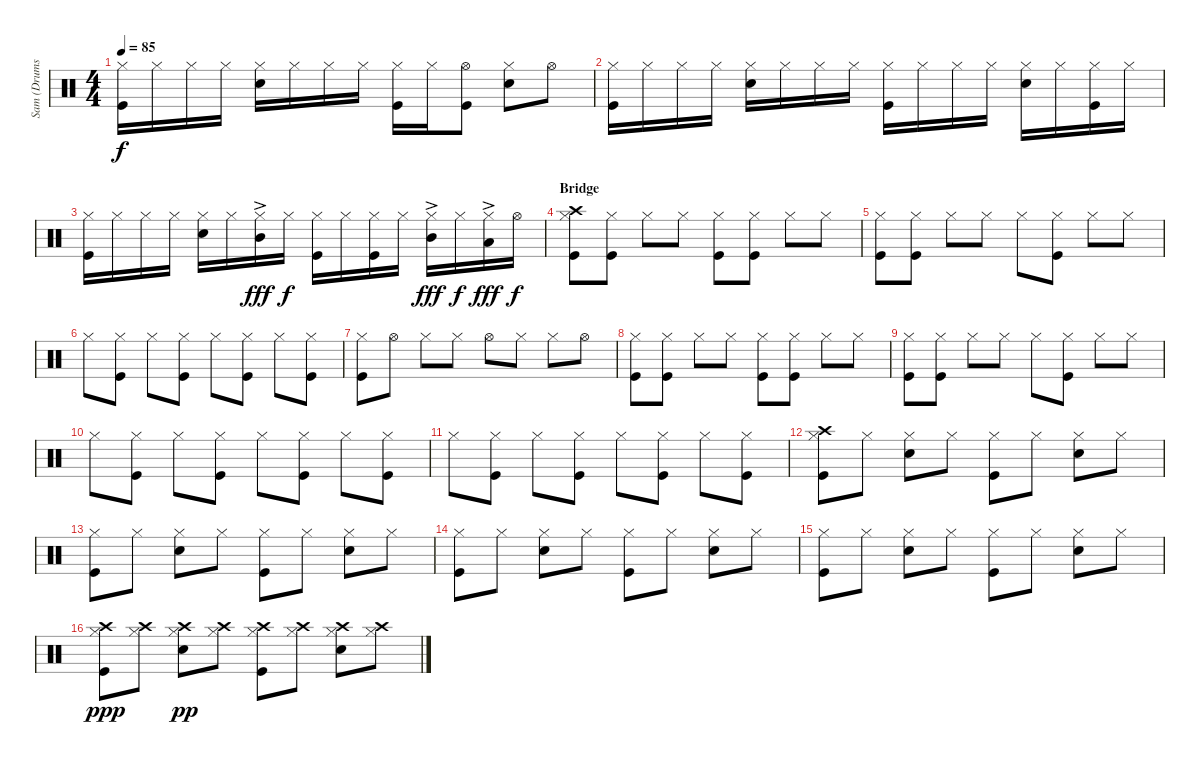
\track ("Sam (Drums)" "Sam (Drums") {instrument percussion}
\staff {score}
\articulation defaults
\ts (4 4)
\tempo 85
\clef neutral
\ks c
("Hi-Hat (closed)" "Kick (hit)").16{dy f} "Hi-Hat (closed)".16 "Hi-Hat (closed)".16 "Hi-Hat (closed)".16 ("Hi-Hat (closed)" "Snare (hit) 2").16 "Hi-Hat (closed)".16 "Hi-Hat (closed)".16 "Hi-Hat (closed)".16 ("Hi-Hat (closed)" "Kick (hit)").16 "Hi-Hat (closed)".16 ("Hi-Hat (open)" "Kick (hit)").8 ("Hi-Hat (closed)" "Snare (hit) 2").8 "Hi-Hat (open)".8 |
("Hi-Hat (closed)" "Kick (hit)").16 "Hi-Hat (closed)".16 "Hi-Hat (closed)".16 "Hi-Hat (closed)".16 ("Hi-Hat (closed)" "Snare (hit) 2").16 "Hi-Hat (closed)".16 "Hi-Hat (closed)".16 "Hi-Hat (closed)".16 ("Hi-Hat (closed)" "Kick (hit)").16 "Hi-Hat (closed)".16 "Hi-Hat (closed)".16 "Hi-Hat (closed)".16 ("Hi-Hat (closed)" "Snare (hit) 2").16 "Hi-Hat (closed)".16 ("Hi-Hat (closed)" "Kick (hit)").16 "Hi-Hat (closed)".16 |
("Hi-Hat (closed)" "Kick (hit)").16 "Hi-Hat (closed)".16 "Hi-Hat (closed)".16 "Hi-Hat (closed)".16 ("Hi-Hat (closed)" "Snare (hit) 2").16 "Hi-Hat (closed)".16 ("Hi-Hat (closed)" "Mid Tom (hit)"{ac}).16{dy fff} "Hi-Hat (closed)".16{dy f} ("Hi-Hat (closed)" "Kick (hit)").16 "Hi-Hat (closed)".16 ("Hi-Hat (closed)" "Kick (hit)").16 "Hi-Hat (closed)".16 ("Hi-Hat (closed)" "Mid Tom (hit)"{ac}).16{dy fff} "Hi-Hat (closed)".16{dy f} ("Hi-Hat (closed)" "Low Tom (hit)"{ac}).16{dy fff} "Hi-Hat (open)".16{dy f} |
\section ("" "Bridge")
("Crash high (hit)" "Hi-Hat (closed)" "Kick (hit)").8 ("Hi-Hat (closed)" "Kick (hit)").8 "Hi-Hat (closed)".8 "Hi-Hat (closed)".8 ("Hi-Hat (closed)" "Kick (hit)").8 ("Hi-Hat (closed)" "Kick (hit)").8 "Hi-Hat (closed)".8 "Hi-Hat (closed)".8 |
("Hi-Hat (closed)" "Kick (hit)").8 ("Hi-Hat (closed)" "Kick (hit)").8 "Hi-Hat (closed)".8 "Hi-Hat (closed)".8 "Hi-Hat (closed)".8 ("Hi-Hat (closed)" "Kick (hit)").8 "Hi-Hat (closed)".8 "Hi-Hat (closed)".8 |
"Hi-Hat (closed)".8 ("Hi-Hat (closed)" "Kick (hit)").8 "Hi-Hat (closed)".8 ("Hi-Hat (closed)" "Kick (hit)").8 "Hi-Hat (closed)".8 ("Hi-Hat (closed)" "Kick (hit)").8 "Hi-Hat (closed)".8 ("Hi-Hat (closed)" "Kick (hit)").8 |
("Hi-Hat (closed)" "Kick (hit)").8 "Hi-Hat (open)".8 "Hi-Hat (closed)".8 "Hi-Hat (closed)".8 "Hi-Hat (open)".8 "Hi-Hat (closed)".8 "Hi-Hat (closed)".8 "Hi-Hat (open)".8 |
("Hi-Hat (closed)" "Kick (hit)").8 ("Hi-Hat (closed)" "Kick (hit)").8 "Hi-Hat (closed)".8 "Hi-Hat (closed)".8 ("Hi-Hat (closed)" "Kick (hit)").8 ("Hi-Hat (closed)" "Kick (hit)").8 "Hi-Hat (closed)".8 "Hi-Hat (closed)".8 |
("Hi-Hat (closed)" "Kick (hit)").8 ("Hi-Hat (closed)" "Kick (hit)").8 "Hi-Hat (closed)".8 "Hi-Hat (closed)".8 "Hi-Hat (closed)".8 ("Hi-Hat (closed)" "Kick (hit)").8 "Hi-Hat (closed)".8 "Hi-Hat (closed)".8 |
"Hi-Hat (closed)".8 ("Hi-Hat (closed)" "Kick (hit)").8 "Hi-Hat (closed)".8 ("Hi-Hat (closed)" "Kick (hit)").8 "Hi-Hat (closed)".8 ("Hi-Hat (closed)" "Kick (hit)").8 "Hi-Hat (closed)".8 ("Hi-Hat (closed)" "Kick (hit)").8 |
"Hi-Hat (closed)".8 ("Hi-Hat (closed)" "Kick (hit)").8 "Hi-Hat (closed)".8 ("Hi-Hat (closed)" "Kick (hit)").8 "Hi-Hat (closed)".8 ("Hi-Hat (closed)" "Kick (hit)").8 "Hi-Hat (closed)".8 ("Hi-Hat (closed)" "Kick (hit)").8 |
("Crash high (hit)" "Hi-Hat (closed)" "Kick (hit)").8 "Hi-Hat (closed)".8 ("Hi-Hat (closed)" "Snare (hit) 2").8 "Hi-Hat (closed)".8 ("Hi-Hat (closed)" "Kick (hit)").8 "Hi-Hat (closed)".8 ("Hi-Hat (closed)" "Snare (hit) 2").8 "Hi-Hat (closed)".8 |
("Hi-Hat (closed)" "Kick (hit)").8 "Hi-Hat (closed)".8 ("Hi-Hat (closed)" "Snare (hit) 2").8 "Hi-Hat (closed)".8 ("Hi-Hat (closed)" "Kick (hit)").8 "Hi-Hat (closed)".8 ("Hi-Hat (closed)" "Snare (hit) 2").8 "Hi-Hat (closed)".8 |
("Hi-Hat (closed)" "Kick (hit)").8 "Hi-Hat (closed)".8 ("Hi-Hat (closed)" "Snare (hit) 2").8 "Hi-Hat (closed)".8 ("Hi-Hat (closed)" "Kick (hit)").8 "Hi-Hat (closed)".8 ("Hi-Hat (closed)" "Snare (hit) 2").8 "Hi-Hat (closed)".8 |
("Hi-Hat (closed)" "Kick (hit)").8 "Hi-Hat (closed)".8 ("Hi-Hat (closed)" "Snare (hit) 2").8 "Hi-Hat (closed)".8 ("Hi-Hat (closed)" "Kick (hit)").8 "Hi-Hat (closed)".8 ("Hi-Hat (closed)" "Snare (hit) 2").8 "Hi-Hat (closed)".8 |
("Crash high (hit)" "Hi-Hat (closed)" "Kick (hit)").8{dy ppp} ("Crash high (hit)" "Hi-Hat (closed)").8 ("Crash high (hit)" "Hi-Hat (closed)" "Snare (hit) 2").8{dy pp} ("Crash high (hit)" "Hi-Hat (closed)").8 ("Crash high (hit)" "Hi-Hat (closed)" "Kick (hit)").8 ("Crash high (hit)" "Hi-Hat (closed)").8 ("Crash high (hit)" "Hi-Hat (closed)" "Snare (hit) 2").8 ("Crash high (hit)" "Hi-Hat (closed)").8
